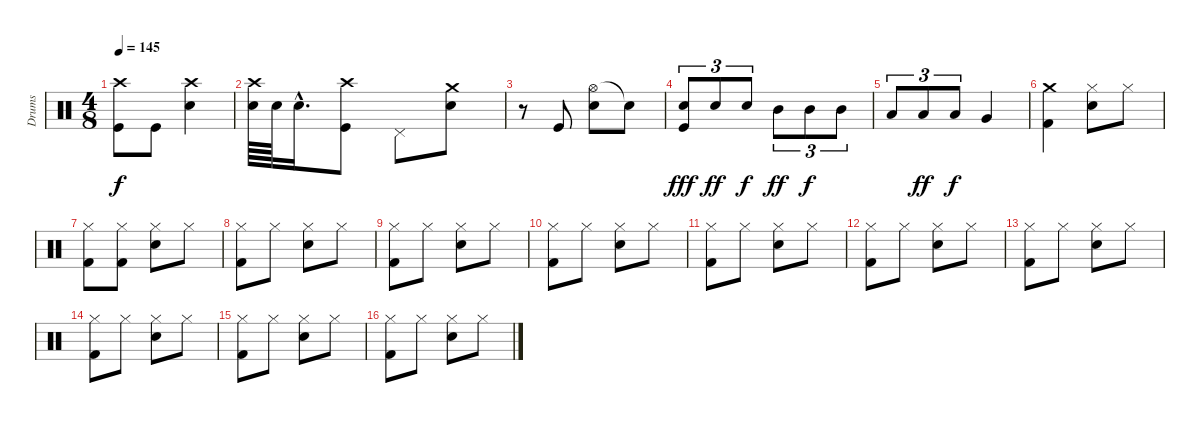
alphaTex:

\track ("Drums" "Drums") {instrument percussion}
\staff {score}
\articulation defaults
\ts (4 8)
\tempo 145
\clef neutral
\ks c
("Crash high (hit)" "Kick (hit)").8{dy f} "Kick (hit)".8 ("Crash high (hit)" "Snare (hit) 2").4 |
("Crash high (hit)" "Snare (hit) 2").64 "Snare (hit) 2".64 "Snare (hit) 2"{hac}.16{d} ("Crash high (hit)" "Kick (hit)").8 "Pedal Hi-Hat (hit)".8 ("Crash medium (hit)" "Snare (hit) 2").8 |
r.8 "Kick (hit)".8 ("Hi-Hat (open)" "Snare (hit) 2").8 "Snare (hit)"{t}.8 |
("Snare (hit) 2" "Kick (hit)").8{tu (3 2) dy fff} "Snare (hit) 2".8{tu (3 2) dy ff} "Snare (hit) 2".8{tu (3 2) dy f} "Mid Tom (hit)".8{tu (3 2) dy ff} "Mid Tom (hit)".8{tu (3 2) dy f} "Mid Tom (hit)".8{tu (3 2)} |
"Low Tom (hit)".8{tu (3 2)} "Low Tom (hit)".8{tu (3 2) dy ff} "Low Tom (hit)".8{tu (3 2) dy f} "Very Low Tom (hit)".4 |
("Crash medium (hit)" "Kick (hit) 2").4 ("Hi-Hat (closed)" "Snare (hit) 2").8 "Hi-Hat (closed)".8 |
("Hi-Hat (closed)" "Kick (hit) 2").8 ("Hi-Hat (closed)" "Kick (hit) 2").8 ("Hi-Hat (closed)" "Snare (hit) 2").8 "Hi-Hat (closed)".8 |
("Hi-Hat (closed)" "Kick (hit) 2").8 "Hi-Hat (closed)".8 ("Hi-Hat (closed)" "Snare (hit) 2").8 "Hi-Hat (closed)".8 |
("Hi-Hat (closed)" "Kick (hit) 2").8 "Hi-Hat (closed)".8 ("Hi-Hat (closed)" "Snare (hit) 2").8 "Hi-Hat (closed)".8 |
("Hi-Hat (closed)" "Kick (hit) 2").8 "Hi-Hat (closed)".8 ("Hi-Hat (closed)" "Snare (hit) 2").8 "Hi-Hat (closed)".8 |
("Hi-Hat (closed)" "Kick (hit) 2").8 "Hi-Hat (closed)".8 ("Hi-Hat (closed)" "Snare (hit) 2").8 "Hi-Hat (closed)".8 |
("Hi-Hat (closed)" "Kick (hit) 2").8 "Hi-Hat (closed)".8 ("Hi-Hat (closed)" "Snare (hit) 2").8 "Hi-Hat (closed)".8 |
("Hi-Hat (closed)" "Kick (hit) 2").8 "Hi-Hat (closed)".8 ("Hi-Hat (closed)" "Snare (hit) 2").8 "Hi-Hat (closed)".8 |
("Hi-Hat (closed)" "Kick (hit) 2").8 "Hi-Hat (closed)".8 ("Hi-Hat (closed)" "Snare (hit) 2").8 "Hi-Hat (closed)".8 |
("Hi-Hat (closed)" "Kick (hit) 2").8 "Hi-Hat (closed)".8 ("Hi-Hat (closed)" "Snare (hit) 2").8 "Hi-Hat (closed)".8 |
("Hi-Hat (closed)" "Kick (hit) 2").8 "Hi-Hat (closed)".8 ("Hi-Hat (closed)" "Snare (hit) 2").8 "Hi-Hat (closed)".8
